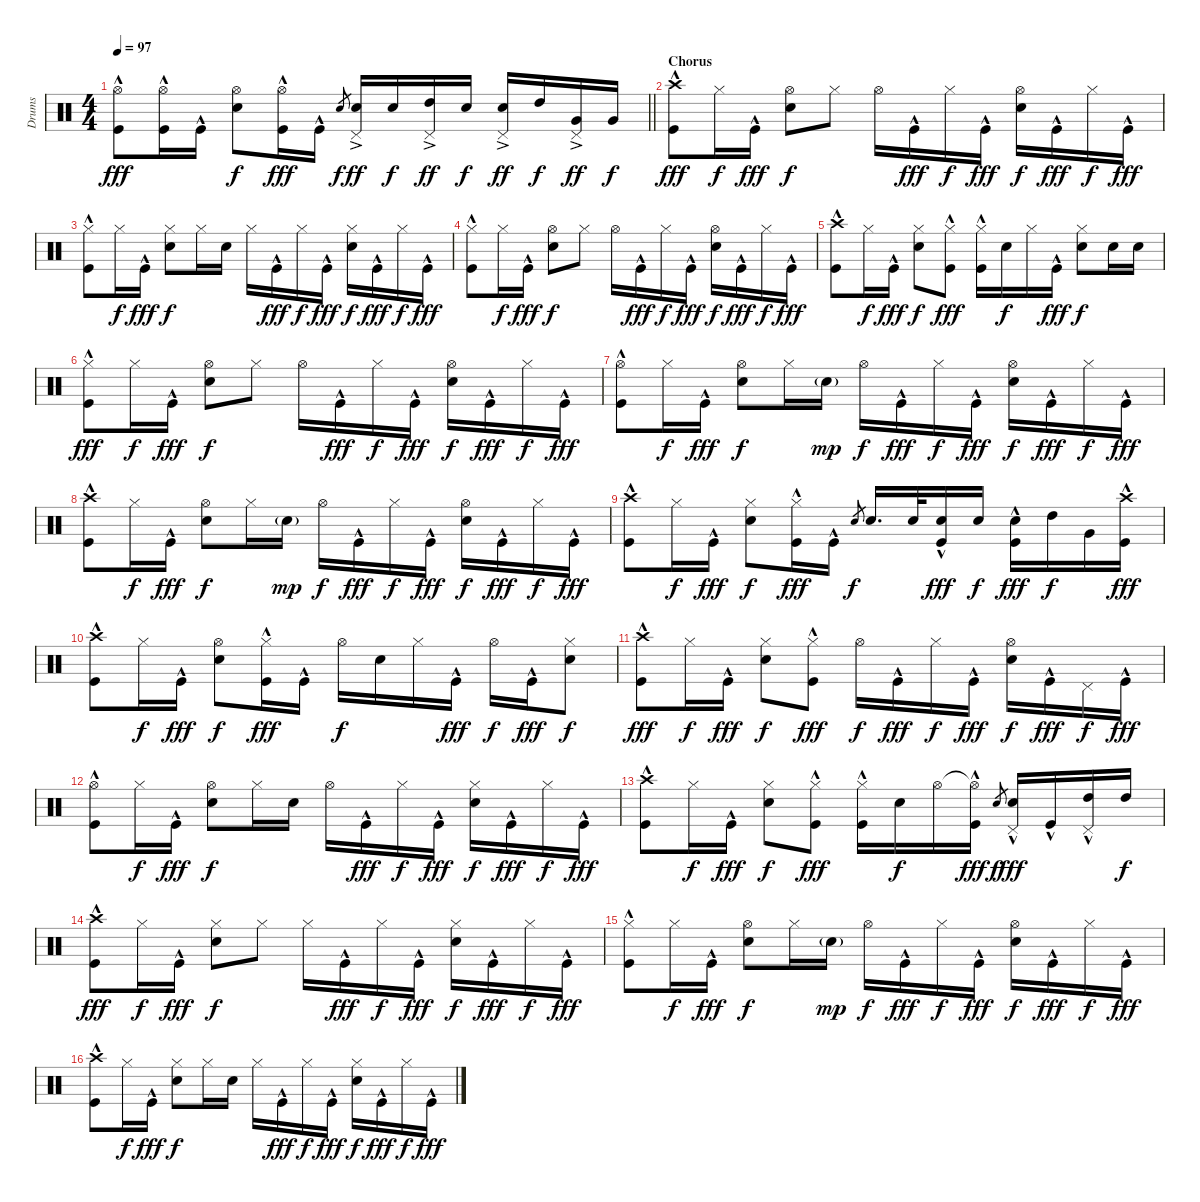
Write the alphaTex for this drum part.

\track ("Drums" "Drums") {instrument percussion}
\staff {score}
\articulation defaults
\ts (4 4)
\tempo 97
\clef neutral
\barLineRight lightlight
\ks c
("Hi-Hat (open)" "Kick (hit)"{hac}).8{dy fff} ("Hi-Hat (open)" "Kick (hit)"{hac}).16 "Kick (hit)"{hac}.16 ("Hi-Hat (open)" "Snare (hit) 2").8{dy f} ("Hi-Hat (open)" "Kick (hit)"{hac}).16{dy fff} "Kick (hit)"{hac}.16 "Snare (hit) 2".8{gr dy f} ("Snare (hit) 2" "Pedal Hi-Hat (hit)"{ac}).16{dy ff} "Snare (hit) 2".16{dy f} ("High Tom (hit)" "Pedal Hi-Hat (hit)"{ac}).16{dy ff} "Snare (hit) 2".16{dy f} ("Snare (hit) 2" "Pedal Hi-Hat (hit)"{ac}).16{dy ff} "High Tom (hit)".16{dy f} ("Very Low Tom (hit)" "Pedal Hi-Hat (hit)"{ac}).16{dy ff} "Very Low Tom (hit)".16{dy f} |
\section ("" "Chorus")
("Crash high (hit)" "Kick (hit)"{hac}).8{dy fff} "Hi-Hat (closed)".16{dy f} "Kick (hit)"{hac}.16{dy fff} ("Hi-Hat (open)" "Snare (hit) 2").8{dy f} "Hi-Hat (closed)".8 "Hi-Hat (open)".16 "Kick (hit)"{hac}.16{dy fff} "Hi-Hat (closed)".16{dy f} "Kick (hit)"{hac}.16{dy fff} ("Hi-Hat (open)" "Snare (hit) 2").16{dy f} "Kick (hit)"{hac}.16{dy fff} "Hi-Hat (closed)".16{dy f} "Kick (hit)"{hac}.16{dy fff} |
("Hi-Hat (closed)" "Kick (hit)"{hac}).8 "Hi-Hat (closed)".16{dy f} "Kick (hit)"{hac}.16{dy fff} ("Hi-Hat (closed)" "Snare (hit) 2").8{dy f} "Hi-Hat (closed)".16 "Snare (hit) 2".16 "Hi-Hat (closed)".16 "Kick (hit)"{hac}.16{dy fff} "Hi-Hat (closed)".16{dy f} "Kick (hit)"{hac}.16{dy fff} ("Hi-Hat (closed)" "Snare (hit) 2").16{dy f} "Kick (hit)"{hac}.16{dy fff} "Hi-Hat (closed)".16{dy f} "Kick (hit)"{hac}.16{dy fff} |
("Hi-Hat (closed)" "Kick (hit)"{hac}).8 "Hi-Hat (closed)".16{dy f} "Kick (hit)"{hac}.16{dy fff} ("Hi-Hat (open)" "Snare (hit) 2").8{dy f} "Hi-Hat (closed)".8 "Hi-Hat (open)".16 "Kick (hit)"{hac}.16{dy fff} "Hi-Hat (closed)".16{dy f} "Kick (hit)"{hac}.16{dy fff} ("Hi-Hat (open)" "Snare (hit) 2").16{dy f} "Kick (hit)"{hac}.16{dy fff} "Hi-Hat (closed)".16{dy f} "Kick (hit)"{hac}.16{dy fff} |
("Crash high (hit)" "Kick (hit)"{hac}).8 "Hi-Hat (closed)".16{dy f} "Kick (hit)"{hac}.16{dy fff} ("Hi-Hat (closed)" "Snare (hit) 2").8{dy f} ("Hi-Hat (closed)" "Kick (hit)"{hac}).8{dy fff} ("Hi-Hat (closed)" "Kick (hit)"{hac}).16 "Snare (hit) 2".16{dy f} "Hi-Hat (closed)".16 "Kick (hit)"{hac}.16{dy fff} ("Hi-Hat (closed)" "Snare (hit) 2").8{dy f} "Snare (hit) 2".16 "Snare (hit) 2".16 |
("Hi-Hat (closed)" "Kick (hit)"{hac}).8{dy fff} "Hi-Hat (closed)".16{dy f} "Kick (hit)"{hac}.16{dy fff} ("Hi-Hat (open)" "Snare (hit) 2").8{dy f} "Hi-Hat (closed)".8 "Hi-Hat (open)".16 "Kick (hit)"{hac}.16{dy fff} "Hi-Hat (closed)".16{dy f} "Kick (hit)"{hac}.16{dy fff} ("Hi-Hat (open)" "Snare (hit) 2").16{dy f} "Kick (hit)"{hac}.16{dy fff} "Hi-Hat (closed)".16{dy f} "Kick (hit)"{hac}.16{dy fff} |
("Hi-Hat (open)" "Kick (hit)"{hac}).8 "Hi-Hat (closed)".16{dy f} "Kick (hit)"{hac}.16{dy fff} ("Hi-Hat (open)" "Snare (hit) 2").8{dy f} "Hi-Hat (closed)".16 "Snare (hit) 2"{g}.16{dy mp} "Hi-Hat (open)".16{dy f} "Kick (hit)"{hac}.16{dy fff} "Hi-Hat (closed)".16{dy f} "Kick (hit)"{hac}.16{dy fff} ("Hi-Hat (open)" "Snare (hit) 2").16{dy f} "Kick (hit)"{hac}.16{dy fff} "Hi-Hat (closed)".16{dy f} "Kick (hit)"{hac}.16{dy fff} |
("Crash high (hit)" "Kick (hit)"{hac}).8 "Hi-Hat (closed)".16{dy f} "Kick (hit)"{hac}.16{dy fff} ("Hi-Hat (open)" "Snare (hit) 2").8{dy f} "Hi-Hat (closed)".16 "Snare (hit) 2"{g}.16{dy mp} "Hi-Hat (open)".16{dy f} "Kick (hit)"{hac}.16{dy fff} "Hi-Hat (closed)".16{dy f} "Kick (hit)"{hac}.16{dy fff} ("Hi-Hat (open)" "Snare (hit) 2").16{dy f} "Kick (hit)"{hac}.16{dy fff} "Hi-Hat (closed)".16{dy f} "Kick (hit)"{hac}.16{dy fff} |
("Crash high (hit)" "Kick (hit)"{hac}).8 "Hi-Hat (closed)".16{dy f} "Kick (hit)"{hac}.16{dy fff} ("Hi-Hat (closed)" "Snare (hit) 2").8{dy f} ("Hi-Hat (closed)" "Kick (hit)"{hac}).16{dy fff} "Kick (hit)"{hac}.16 "Snare (hit) 2".8{gr dy f} "Snare (hit) 2".16{d} "Snare (hit) 2".32 ("Snare (hit) 2" "Kick (hit)"{hac}).16{dy fff} "Snare (hit) 2".16{dy f} ("Snare (hit) 2" "Kick (hit)"{hac}).16{dy fff} "High Tom (hit)".16{dy f} "Very Low Tom (hit)".16 ("Crash high (hit)" "Kick (hit)"{hac}).16{dy fff} |
("Crash high (hit)" "Kick (hit)"{hac}).8 "Hi-Hat (closed)".16{dy f} "Kick (hit)"{hac}.16{dy fff} ("Hi-Hat (open)" "Snare (hit) 2").8{dy f} ("Hi-Hat (closed)" "Kick (hit)"{hac}).16{dy fff} "Kick (hit)"{hac}.16 "Hi-Hat (open)".16{dy f} "Snare (hit) 2".16 "Hi-Hat (closed)".16 "Kick (hit)"{hac}.16{dy fff} "Hi-Hat (open)".16{dy f} "Kick (hit)"{hac}.16{dy fff} ("Hi-Hat (closed)" "Snare (hit) 2").8{dy f} |
("Crash high (hit)" "Kick (hit)"{hac}).8{dy fff} "Hi-Hat (closed)".16{dy f} "Kick (hit)"{hac}.16{dy fff} ("Hi-Hat (closed)" "Snare (hit) 2").8{dy f} ("Hi-Hat (closed)" "Kick (hit)"{hac}).8{dy fff} "Hi-Hat (open)".16{dy f} "Kick (hit)"{hac}.16{dy fff} "Hi-Hat (closed)".16{dy f} "Kick (hit)"{hac}.16{dy fff} ("Hi-Hat (open)" "Snare (hit) 2").16{dy f} "Kick (hit)"{hac}.16{dy fff} "Pedal Hi-Hat (hit)".16{dy f} "Kick (hit)"{hac}.16{dy fff} |
("Hi-Hat (open)" "Kick (hit)"{hac}).8 "Hi-Hat (closed)".16{dy f} "Kick (hit)"{hac}.16{dy fff} ("Hi-Hat (open)" "Snare (hit) 2").8{dy f} "Hi-Hat (closed)".16 "Snare (hit) 2".16 "Hi-Hat (open)".16 "Kick (hit)"{hac}.16{dy fff} "Hi-Hat (closed)".16{dy f} "Kick (hit)"{hac}.16{dy fff} ("Hi-Hat (closed)" "Snare (hit) 2").16{dy f} "Kick (hit)"{hac}.16{dy fff} "Hi-Hat (closed)".16{dy f} "Kick (hit)"{hac}.16{dy fff} |
("Crash high (hit)" "Kick (hit)"{hac}).8 "Hi-Hat (closed)".16{dy f} "Kick (hit)"{hac}.16{dy fff} ("Hi-Hat (closed)" "Snare (hit) 2").8{dy f} ("Hi-Hat (closed)" "Kick (hit)"{hac}).8{dy fff} ("Hi-Hat (closed)" "Kick (hit)"{hac}).16 "Snare (hit) 2".16{dy f} "Hi-Hat (open)".16 ("Hi-Hat (open)"{t} "Kick (hit)"{hac}).16{dy fff} "Snare (hit) 2".8{gr dy f} ("Snare (hit) 2" "Pedal Hi-Hat (hit)"{hac}).16{dy fff} "Kick (hit)"{hac}.16 ("High Tom (hit)" "Pedal Hi-Hat (hit)"{hac}).16 "High Tom (hit)".16{dy f} |
("Crash high (hit)" "Kick (hit)"{hac}).8{dy fff} "Hi-Hat (closed)".16{dy f} "Kick (hit)"{hac}.16{dy fff} ("Hi-Hat (closed)" "Snare (hit) 2").8{dy f} "Hi-Hat (closed)".8 "Hi-Hat (closed)".16 "Kick (hit)"{hac}.16{dy fff} "Hi-Hat (closed)".16{dy f} "Kick (hit)"{hac}.16{dy fff} ("Hi-Hat (closed)" "Snare (hit) 2").16{dy f} "Kick (hit)"{hac}.16{dy fff} "Hi-Hat (closed)".16{dy f} "Kick (hit)"{hac}.16{dy fff} |
("Hi-Hat (closed)" "Kick (hit)"{hac}).8 "Hi-Hat (closed)".16{dy f} "Kick (hit)"{hac}.16{dy fff} ("Hi-Hat (open)" "Snare (hit) 2").8{dy f} "Hi-Hat (closed)".16 "Snare (hit) 2"{g}.16{dy mp} "Hi-Hat (open)".16{dy f} "Kick (hit)"{hac}.16{dy fff} "Hi-Hat (closed)".16{dy f} "Kick (hit)"{hac}.16{dy fff} ("Hi-Hat (open)" "Snare (hit) 2").16{dy f} "Kick (hit)"{hac}.16{dy fff} "Hi-Hat (closed)".16{dy f} "Kick (hit)"{hac}.16{dy fff} |
("Crash high (hit)" "Kick (hit)"{hac}).8 "Hi-Hat (closed)".16{dy f} "Kick (hit)"{hac}.16{dy fff} ("Hi-Hat (closed)" "Snare (hit) 2").8{dy f} "Hi-Hat (closed)".16 "Snare (hit) 2".16 "Hi-Hat (closed)".16 "Kick (hit)"{hac}.16{dy fff} "Hi-Hat (closed)".16{dy f} "Kick (hit)"{hac}.16{dy fff} ("Hi-Hat (closed)" "Snare (hit) 2").16{dy f} "Kick (hit)"{hac}.16{dy fff} "Hi-Hat (closed)".16{dy f} "Kick (hit)"{hac}.16{dy fff}
